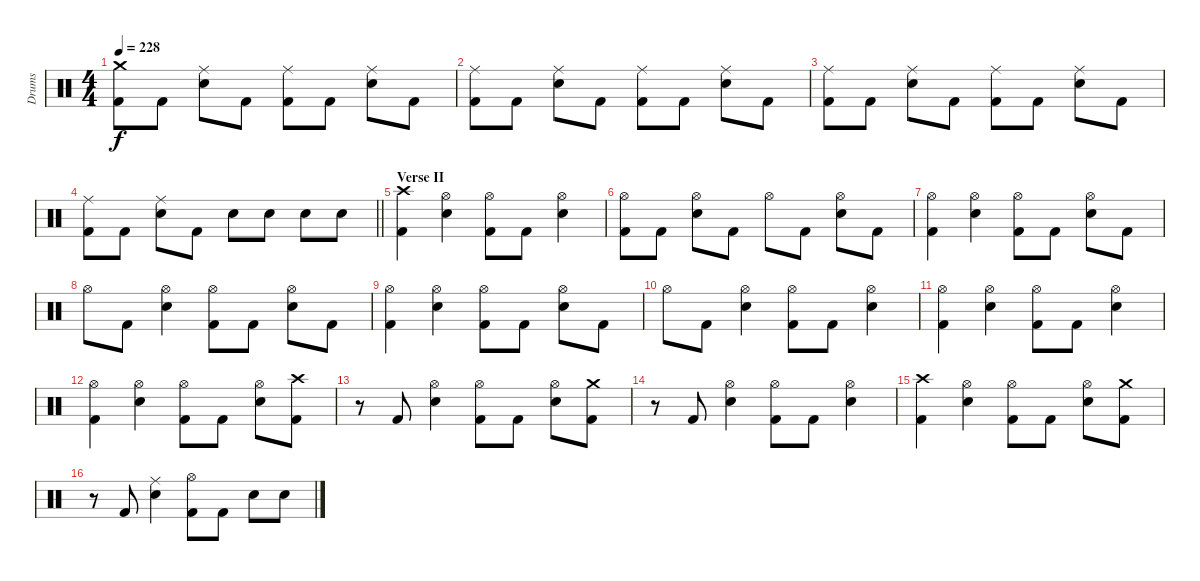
\track ("Drums" "Drums") {instrument percussion}
\staff {score}
\articulation defaults
\ts (4 4)
\tempo 228
\clef neutral
\ks c
("Crash medium (hit)" "Kick (hit) 2").8{dy f} "Kick (hit) 2".8 ("Ride (middle)" "Snare (hit) 2").8 "Kick (hit) 2".8 ("Ride (middle)" "Kick (hit) 2").8 "Kick (hit) 2".8 ("Ride (middle)" "Snare (hit) 2").8 "Kick (hit) 2".8 |
("Ride (middle)" "Kick (hit) 2").8 "Kick (hit) 2".8 ("Ride (middle)" "Snare (hit) 2").8 "Kick (hit) 2".8 ("Ride (middle)" "Kick (hit) 2").8 "Kick (hit) 2".8 ("Ride (middle)" "Snare (hit) 2").8 "Kick (hit) 2".8 |
("Ride (middle)" "Kick (hit) 2").8 "Kick (hit) 2".8 ("Ride (middle)" "Snare (hit) 2").8 "Kick (hit) 2".8 ("Ride (middle)" "Kick (hit) 2").8 "Kick (hit) 2".8 ("Ride (middle)" "Snare (hit) 2").8 "Kick (hit) 2".8 |
\barLineRight lightlight
("Ride (middle)" "Kick (hit) 2").8 "Kick (hit) 2".8 ("Ride (middle)" "Snare (hit) 2").8 "Kick (hit) 2".8 "Snare (hit) 2".8 "Snare (hit) 2".8 "Snare (hit) 2".8 "Snare (hit) 2".8 |
\section ("" "Verse II")
("Crash high (hit)" "Kick (hit) 2").4 ("Hi-Hat (open)" "Snare (hit) 2").4 ("Hi-Hat (open)" "Kick (hit) 2").8 "Kick (hit) 2".8 ("Hi-Hat (open)" "Snare (hit) 2").4 |
("Hi-Hat (open)" "Kick (hit) 2").8 "Kick (hit) 2".8 ("Hi-Hat (open)" "Snare (hit) 2").8 "Kick (hit) 2".8 "Hi-Hat (open)".8 "Kick (hit) 2".8 ("Hi-Hat (open)" "Snare (hit) 2").8 "Kick (hit) 2".8 |
("Hi-Hat (open)" "Kick (hit) 2").4 ("Hi-Hat (open)" "Snare (hit) 2").4 ("Hi-Hat (open)" "Kick (hit) 2").8 "Kick (hit) 2".8 ("Hi-Hat (open)" "Snare (hit) 2").8 "Kick (hit) 2".8 |
"Hi-Hat (open)".8 "Kick (hit) 2".8 ("Hi-Hat (open)" "Snare (hit) 2").4 ("Hi-Hat (open)" "Kick (hit) 2").8 "Kick (hit) 2".8 ("Hi-Hat (open)" "Snare (hit) 2").8 "Kick (hit) 2".8 |
("Hi-Hat (open)" "Kick (hit) 2").4 ("Hi-Hat (open)" "Snare (hit) 2").4 ("Hi-Hat (open)" "Kick (hit) 2").8 "Kick (hit) 2".8 ("Hi-Hat (open)" "Snare (hit) 2").8 "Kick (hit) 2".8 |
"Hi-Hat (open)".8 "Kick (hit) 2".8 ("Hi-Hat (open)" "Snare (hit) 2").4 ("Hi-Hat (open)" "Kick (hit) 2").8 "Kick (hit) 2".8 ("Hi-Hat (open)" "Snare (hit) 2").4 |
("Hi-Hat (open)" "Kick (hit) 2").4 ("Hi-Hat (open)" "Snare (hit) 2").4 ("Hi-Hat (open)" "Kick (hit) 2").8 "Kick (hit) 2".8 ("Hi-Hat (open)" "Snare (hit) 2").4 |
("Hi-Hat (open)" "Kick (hit) 2").4 ("Hi-Hat (open)" "Snare (hit) 2").4 ("Hi-Hat (open)" "Kick (hit) 2").8 "Kick (hit) 2".8 ("Hi-Hat (open)" "Snare (hit) 2").8 ("Crash high (hit)" "Kick (hit) 2").8 |
r.8 "Kick (hit) 2".8 ("Hi-Hat (open)" "Snare (hit) 2").4 ("Hi-Hat (open)" "Kick (hit) 2").8 "Kick (hit) 2".8 ("Hi-Hat (open)" "Snare (hit) 2").8 ("Crash medium (hit)" "Kick (hit) 2").8 |
r.8 "Kick (hit) 2".8 ("Hi-Hat (open)" "Snare (hit) 2").4 ("Hi-Hat (open)" "Kick (hit) 2").8 "Kick (hit) 2".8 ("Hi-Hat (open)" "Snare (hit) 2").4 |
("Crash high (hit)" "Kick (hit) 2").4 ("Hi-Hat (open)" "Snare (hit) 2").4 ("Hi-Hat (open)" "Kick (hit) 2").8 "Kick (hit) 2".8 ("Hi-Hat (open)" "Snare (hit) 2").8 ("Crash medium (hit)" "Kick (hit) 2").8 |
r.8 "Kick (hit) 2".8 ("Ride (middle)" "Snare (hit) 2").4 ("Hi-Hat (open)" "Kick (hit) 2").8 "Kick (hit) 2".8 "Snare (hit) 2".8 "Snare (hit) 2".8
